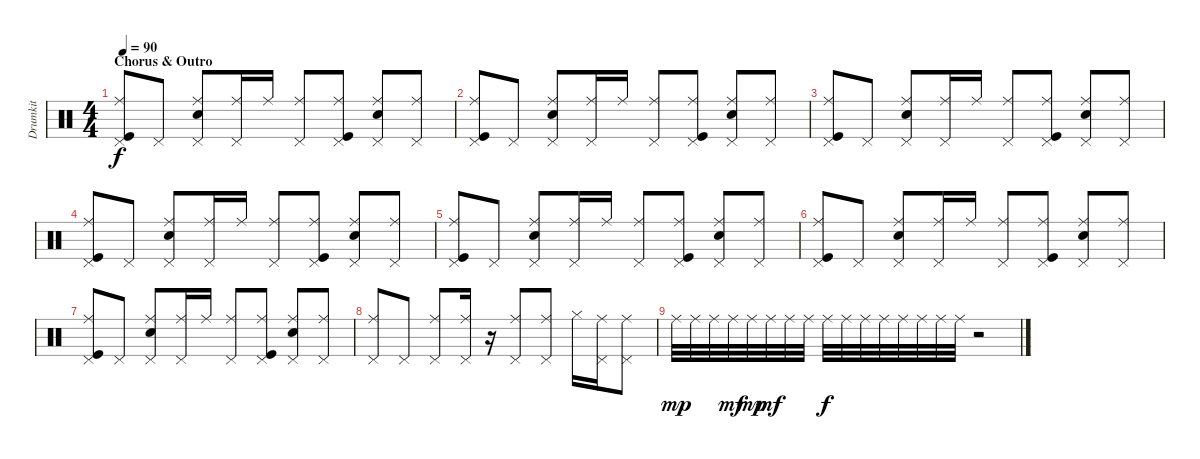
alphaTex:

\track ("Drumkit" "Drumkit") {instrument percussion}
\staff {score}
\articulation defaults
\ts (4 4)
\section ("" "Chorus & Outro")
\tempo 90
\clef neutral
\ks c
("Kick (hit)" "Ride (middle)" "Pedal Hi-Hat (hit)").8{dy f} "Pedal Hi-Hat (hit)".8 ("Snare (hit) 2" "Ride (middle)" "Pedal Hi-Hat (hit)").8 ("Ride (middle)" "Pedal Hi-Hat (hit)").16 "Ride (middle)".16 ("Ride (middle)" "Pedal Hi-Hat (hit)").8 ("Kick (hit)" "Ride (middle)" "Pedal Hi-Hat (hit)").8 ("Snare (hit) 2" "Ride (middle)" "Pedal Hi-Hat (hit)").8 ("Ride (middle)" "Pedal Hi-Hat (hit)").8 |
("Kick (hit)" "Ride (middle)" "Pedal Hi-Hat (hit)").8 "Pedal Hi-Hat (hit)".8 ("Snare (hit) 2" "Ride (middle)" "Pedal Hi-Hat (hit)").8 ("Ride (middle)" "Pedal Hi-Hat (hit)").16 "Ride (middle)".16 ("Ride (middle)" "Pedal Hi-Hat (hit)").8 ("Kick (hit)" "Ride (middle)" "Pedal Hi-Hat (hit)").8 ("Snare (hit) 2" "Ride (middle)" "Pedal Hi-Hat (hit)").8 ("Ride (middle)" "Pedal Hi-Hat (hit)").8 |
("Kick (hit)" "Ride (middle)" "Pedal Hi-Hat (hit)").8 "Pedal Hi-Hat (hit)".8 ("Snare (hit) 2" "Ride (middle)" "Pedal Hi-Hat (hit)").8 ("Ride (middle)" "Pedal Hi-Hat (hit)").16 "Ride (middle)".16 ("Ride (middle)" "Pedal Hi-Hat (hit)").8 ("Kick (hit)" "Ride (middle)" "Pedal Hi-Hat (hit)").8 ("Snare (hit) 2" "Ride (middle)" "Pedal Hi-Hat (hit)").8 ("Ride (middle)" "Pedal Hi-Hat (hit)").8 |
("Kick (hit)" "Ride (middle)" "Pedal Hi-Hat (hit)").8 "Pedal Hi-Hat (hit)".8 ("Snare (hit) 2" "Ride (middle)" "Pedal Hi-Hat (hit)").8 ("Ride (middle)" "Pedal Hi-Hat (hit)").16 "Ride (middle)".16 ("Ride (middle)" "Pedal Hi-Hat (hit)").8 ("Kick (hit)" "Ride (middle)" "Pedal Hi-Hat (hit)").8 ("Snare (hit) 2" "Ride (middle)" "Pedal Hi-Hat (hit)").8 ("Ride (middle)" "Pedal Hi-Hat (hit)").8 |
("Kick (hit)" "Ride (middle)" "Pedal Hi-Hat (hit)").8 "Pedal Hi-Hat (hit)".8 ("Snare (hit) 2" "Ride (middle)" "Pedal Hi-Hat (hit)").8 ("Ride (middle)" "Pedal Hi-Hat (hit)").16 "Ride (middle)".16 ("Ride (middle)" "Pedal Hi-Hat (hit)").8 ("Kick (hit)" "Ride (middle)" "Pedal Hi-Hat (hit)").8 ("Snare (hit) 2" "Ride (middle)" "Pedal Hi-Hat (hit)").8 ("Ride (middle)" "Pedal Hi-Hat (hit)").8 |
("Kick (hit)" "Ride (middle)" "Pedal Hi-Hat (hit)").8 "Pedal Hi-Hat (hit)".8 ("Snare (hit) 2" "Ride (middle)" "Pedal Hi-Hat (hit)").8 ("Ride (middle)" "Pedal Hi-Hat (hit)").16 "Ride (middle)".16 ("Ride (middle)" "Pedal Hi-Hat (hit)").8 ("Kick (hit)" "Ride (middle)" "Pedal Hi-Hat (hit)").8 ("Snare (hit) 2" "Ride (middle)" "Pedal Hi-Hat (hit)").8 ("Ride (middle)" "Pedal Hi-Hat (hit)").8 |
("Kick (hit)" "Ride (middle)" "Pedal Hi-Hat (hit)").8 "Pedal Hi-Hat (hit)".8 ("Snare (hit) 2" "Ride (middle)" "Pedal Hi-Hat (hit)").8 ("Ride (middle)" "Pedal Hi-Hat (hit)").16 "Ride (middle)".16 ("Ride (middle)" "Pedal Hi-Hat (hit)").8 ("Kick (hit)" "Ride (middle)" "Pedal Hi-Hat (hit)").8 ("Snare (hit) 2" "Ride (middle)" "Pedal Hi-Hat (hit)").8 ("Ride (middle)" "Pedal Hi-Hat (hit)").8 |
("Ride (middle)" "Pedal Hi-Hat (hit)").8 "Pedal Hi-Hat (hit)".8 ("Ride (middle)" "Pedal Hi-Hat (hit)").8 ("Ride (middle)" "Pedal Hi-Hat (hit)").16 r.16 ("Ride (middle)" "Pedal Hi-Hat (hit)").8 ("Ride (middle)" "Pedal Hi-Hat (hit)").8 "Hi-Hat (closed)".16 ("Ride (middle)" "Pedal Hi-Hat (hit)").16 ("Ride (middle)" "Pedal Hi-Hat (hit)").8 |
"Ride (middle)".32{dy mp} "Ride (middle)".32 "Ride (middle)".32 "Ride (middle)".32{dy mf} "Ride (middle)".32{dy mp} "Ride (middle)".32{dy mf} "Ride (middle)".32 "Ride (middle)".32 "Ride (middle)".32{dy f} "Ride (middle)".32 "Ride (middle)".32 "Ride (middle)".32 "Ride (middle)".32 "Ride (middle)".32 "Ride (middle)".32 "Ride (middle)".32 r.2
